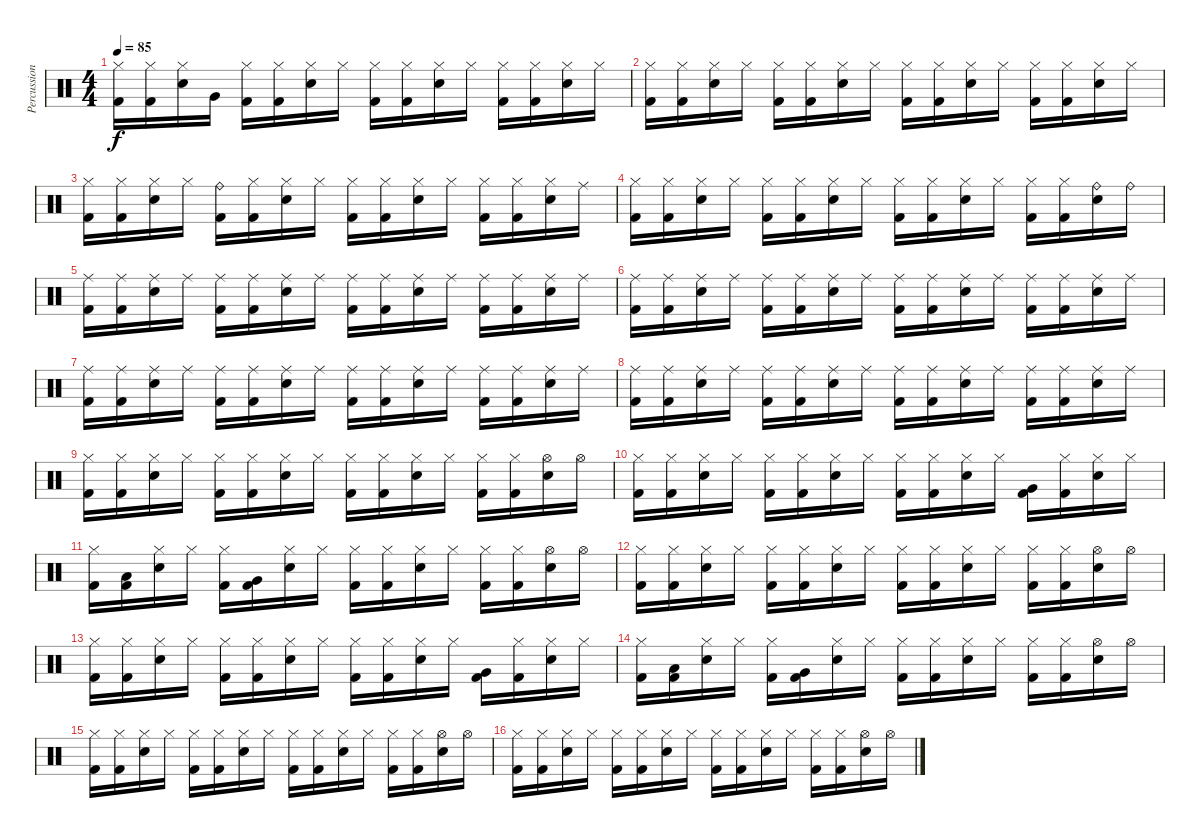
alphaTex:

\track ("Percussion" "Percussion") {instrument percussion}
\staff {score}
\articulation defaults
\ts (4 4)
\tempo 85
\clef neutral
\ks c
("Hi-Hat (closed)" "Kick (hit) 2").16{dy f} ("Hi-Hat (closed)" "Kick (hit) 2").16 ("Hi-Hat (closed)" "Snare (hit) 2").16 "Very Low Tom (hit)".16 ("Hi-Hat (closed)" "Kick (hit) 2").16 ("Hi-Hat (closed)" "Kick (hit) 2").16 ("Hi-Hat (closed)" "Snare (hit) 2").16 "Hi-Hat (closed)".16 ("Hi-Hat (closed)" "Kick (hit) 2").16 ("Hi-Hat (closed)" "Kick (hit) 2").16 ("Hi-Hat (closed)" "Snare (hit) 2").16 "Hi-Hat (closed)".16 ("Hi-Hat (closed)" "Kick (hit) 2").16 ("Hi-Hat (closed)" "Kick (hit) 2").16 ("Hi-Hat (closed)" "Snare (hit) 2").16 "Hi-Hat (closed)".16 |
("Hi-Hat (closed)" "Kick (hit) 2").16 ("Hi-Hat (closed)" "Kick (hit) 2").16 ("Hi-Hat (closed)" "Snare (hit) 2").16 "Hi-Hat (closed)".16 ("Hi-Hat (closed)" "Kick (hit) 2").16 ("Hi-Hat (closed)" "Kick (hit) 2").16 ("Hi-Hat (closed)" "Snare (hit) 2").16 "Hi-Hat (closed)".16 ("Hi-Hat (closed)" "Kick (hit) 2").16 ("Hi-Hat (closed)" "Kick (hit) 2").16 ("Hi-Hat (closed)" "Snare (hit) 2").16 "Hi-Hat (closed)".16 ("Hi-Hat (closed)" "Kick (hit) 2").16 ("Hi-Hat (closed)" "Kick (hit) 2").16 ("Hi-Hat (closed)" "Snare (hit) 2").16 "Hi-Hat (closed)".16 |
("Hi-Hat (closed)" "Kick (hit) 2").16 ("Hi-Hat (closed)" "Kick (hit) 2").16 ("Hi-Hat (closed)" "Snare (hit) 2").16 "Hi-Hat (closed)".16 ("Ride (bell)" "Kick (hit) 2").16 ("Hi-Hat (closed)" "Kick (hit) 2").16 ("Hi-Hat (closed)" "Snare (hit) 2").16 "Hi-Hat (closed)".16 ("Hi-Hat (closed)" "Kick (hit) 2").16 ("Hi-Hat (closed)" "Kick (hit) 2").16 ("Hi-Hat (closed)" "Snare (hit) 2").16 "Hi-Hat (closed)".16 ("Hi-Hat (closed)" "Kick (hit) 2").16 ("Hi-Hat (closed)" "Kick (hit) 2").16 ("Hi-Hat (closed)" "Snare (hit) 2").16 "Ride (middle)".16 |
("Hi-Hat (closed)" "Kick (hit) 2").16 ("Hi-Hat (closed)" "Kick (hit) 2").16 ("Hi-Hat (closed)" "Snare (hit) 2").16 "Hi-Hat (closed)".16 ("Hi-Hat (closed)" "Kick (hit) 2").16 ("Hi-Hat (closed)" "Kick (hit) 2").16 ("Hi-Hat (closed)" "Snare (hit) 2").16 "Hi-Hat (closed)".16 ("Hi-Hat (closed)" "Kick (hit) 2").16 ("Hi-Hat (closed)" "Kick (hit) 2").16 ("Hi-Hat (closed)" "Snare (hit) 2").16 "Hi-Hat (closed)".16 ("Hi-Hat (closed)" "Kick (hit) 2").16 ("Hi-Hat (closed)" "Kick (hit) 2").16 ("Ride (bell)" "Snare (hit) 2").16 "Ride (bell)".16 |
("Ride (middle)" "Kick (hit) 2").16 ("Ride (middle)" "Kick (hit) 2").16 ("Ride (middle)" "Snare (hit) 2").16 "Ride (middle)".16 ("Ride (middle)" "Kick (hit) 2").16 ("Ride (middle)" "Kick (hit) 2").16 ("Ride (middle)" "Snare (hit) 2").16 "Ride (middle)".16 ("Ride (middle)" "Kick (hit) 2").16 ("Ride (middle)" "Kick (hit) 2").16 ("Ride (middle)" "Snare (hit) 2").16 "Ride (middle)".16 ("Ride (middle)" "Kick (hit) 2").16 ("Ride (middle)" "Kick (hit) 2").16 ("Ride (middle)" "Snare (hit) 2").16 "Ride (middle)".16 |
("Ride (middle)" "Kick (hit) 2").16 ("Ride (middle)" "Kick (hit) 2").16 ("Ride (middle)" "Snare (hit) 2").16 "Ride (middle)".16 ("Ride (middle)" "Kick (hit) 2").16 ("Ride (middle)" "Kick (hit) 2").16 ("Ride (middle)" "Snare (hit) 2").16 "Ride (middle)".16 ("Ride (middle)" "Kick (hit) 2").16 ("Ride (middle)" "Kick (hit) 2").16 ("Ride (middle)" "Snare (hit) 2").16 "Ride (middle)".16 ("Ride (middle)" "Kick (hit) 2").16 ("Ride (middle)" "Kick (hit) 2").16 ("Ride (middle)" "Snare (hit) 2").16 "Ride (middle)".16 |
("Ride (middle)" "Kick (hit) 2").16 ("Ride (middle)" "Kick (hit) 2").16 ("Ride (middle)" "Snare (hit) 2").16 "Ride (middle)".16 ("Ride (middle)" "Kick (hit) 2").16 ("Ride (middle)" "Kick (hit) 2").16 ("Ride (middle)" "Snare (hit) 2").16 "Ride (middle)".16 ("Ride (middle)" "Kick (hit) 2").16 ("Ride (middle)" "Kick (hit) 2").16 ("Ride (middle)" "Snare (hit) 2").16 "Ride (middle)".16 ("Ride (middle)" "Kick (hit) 2").16 ("Ride (middle)" "Kick (hit) 2").16 ("Ride (middle)" "Snare (hit) 2").16 "Ride (middle)".16 |
("Ride (middle)" "Kick (hit) 2").16 ("Ride (middle)" "Kick (hit) 2").16 ("Ride (middle)" "Snare (hit) 2").16 "Ride (middle)".16 ("Ride (middle)" "Kick (hit) 2").16 ("Ride (middle)" "Kick (hit) 2").16 ("Ride (middle)" "Snare (hit) 2").16 "Ride (middle)".16 ("Ride (middle)" "Kick (hit) 2").16 ("Ride (middle)" "Kick (hit) 2").16 ("Ride (middle)" "Snare (hit) 2").16 "Ride (middle)".16 ("Ride (middle)" "Kick (hit) 2").16 ("Ride (middle)" "Kick (hit) 2").16 ("Ride (middle)" "Snare (hit) 2").16 "Ride (middle)".16 |
("Hi-Hat (closed)" "Kick (hit) 2").16 ("Hi-Hat (closed)" "Kick (hit) 2").16 ("Hi-Hat (closed)" "Snare (hit) 2").16 "Hi-Hat (closed)".16 ("Hi-Hat (closed)" "Kick (hit) 2").16 ("Hi-Hat (closed)" "Kick (hit) 2").16 ("Hi-Hat (closed)" "Snare (hit) 2").16 "Hi-Hat (closed)".16 ("Hi-Hat (closed)" "Kick (hit) 2").16 ("Hi-Hat (closed)" "Kick (hit) 2").16 ("Hi-Hat (closed)" "Snare (hit) 2").16 "Hi-Hat (closed)".16 ("Hi-Hat (closed)" "Kick (hit) 2").16 ("Hi-Hat (closed)" "Kick (hit) 2").16 ("Hi-Hat (open)" "Snare (hit) 2").16 "Hi-Hat (open)".16 |
("Hi-Hat (closed)" "Kick (hit) 2").16 ("Hi-Hat (closed)" "Kick (hit) 2").16 ("Hi-Hat (closed)" "Snare (hit) 2").16 "Hi-Hat (closed)".16 ("Hi-Hat (closed)" "Kick (hit) 2").16 ("Hi-Hat (closed)" "Kick (hit) 2").16 ("Hi-Hat (closed)" "Snare (hit) 2").16 "Hi-Hat (closed)".16 ("Hi-Hat (closed)" "Kick (hit) 2").16 ("Hi-Hat (closed)" "Kick (hit) 2").16 ("Hi-Hat (closed)" "Snare (hit) 2").16 "Hi-Hat (closed)".16 ("Very Low Tom (hit)" "Kick (hit) 2").16 ("Hi-Hat (closed)" "Kick (hit) 2").16 ("Hi-Hat (closed)" "Snare (hit) 2").16 "Hi-Hat (closed)".16 |
("Hi-Hat (closed)" "Kick (hit) 2").16 ("Low Tom (hit)" "Kick (hit) 2").16 ("Hi-Hat (closed)" "Snare (hit) 2").16 "Hi-Hat (closed)".16 ("Hi-Hat (closed)" "Kick (hit) 2").16 ("Very Low Tom (hit)" "Kick (hit) 2").16 ("Hi-Hat (closed)" "Snare (hit) 2").16 "Hi-Hat (closed)".16 ("Hi-Hat (closed)" "Kick (hit) 2").16 ("Hi-Hat (closed)" "Kick (hit) 2").16 ("Hi-Hat (closed)" "Snare (hit) 2").16 "Hi-Hat (closed)".16 ("Hi-Hat (closed)" "Kick (hit) 2").16 ("Hi-Hat (closed)" "Kick (hit) 2").16 ("Hi-Hat (open)" "Snare (hit) 2").16 "Hi-Hat (open)".16 |
("Hi-Hat (closed)" "Kick (hit) 2").16 ("Hi-Hat (closed)" "Kick (hit) 2").16 ("Hi-Hat (closed)" "Snare (hit) 2").16 "Hi-Hat (closed)".16 ("Hi-Hat (closed)" "Kick (hit) 2").16 ("Hi-Hat (closed)" "Kick (hit) 2").16 ("Hi-Hat (closed)" "Snare (hit) 2").16 "Hi-Hat (closed)".16 ("Hi-Hat (closed)" "Kick (hit) 2").16 ("Hi-Hat (closed)" "Kick (hit) 2").16 ("Hi-Hat (closed)" "Snare (hit) 2").16 "Hi-Hat (closed)".16 ("Hi-Hat (closed)" "Kick (hit) 2").16 ("Hi-Hat (closed)" "Kick (hit) 2").16 ("Hi-Hat (open)" "Snare (hit) 2").16 "Hi-Hat (open)".16 |
("Hi-Hat (closed)" "Kick (hit) 2").16 ("Hi-Hat (closed)" "Kick (hit) 2").16 ("Hi-Hat (closed)" "Snare (hit) 2").16 "Hi-Hat (closed)".16 ("Hi-Hat (closed)" "Kick (hit) 2").16 ("Hi-Hat (closed)" "Kick (hit) 2").16 ("Hi-Hat (closed)" "Snare (hit) 2").16 "Hi-Hat (closed)".16 ("Hi-Hat (closed)" "Kick (hit) 2").16 ("Hi-Hat (closed)" "Kick (hit) 2").16 ("Hi-Hat (closed)" "Snare (hit) 2").16 "Hi-Hat (closed)".16 ("Very Low Tom (hit)" "Kick (hit) 2").16 ("Hi-Hat (closed)" "Kick (hit) 2").16 ("Hi-Hat (closed)" "Snare (hit) 2").16 "Hi-Hat (closed)".16 |
("Hi-Hat (closed)" "Kick (hit) 2").16 ("Low Tom (hit)" "Kick (hit) 2").16 ("Hi-Hat (closed)" "Snare (hit) 2").16 "Hi-Hat (closed)".16 ("Hi-Hat (closed)" "Kick (hit) 2").16 ("Very Low Tom (hit)" "Kick (hit) 2").16 ("Hi-Hat (closed)" "Snare (hit) 2").16 "Hi-Hat (closed)".16 ("Hi-Hat (closed)" "Kick (hit) 2").16 ("Hi-Hat (closed)" "Kick (hit) 2").16 ("Hi-Hat (closed)" "Snare (hit) 2").16 "Hi-Hat (closed)".16 ("Hi-Hat (closed)" "Kick (hit) 2").16 ("Hi-Hat (closed)" "Kick (hit) 2").16 ("Hi-Hat (open)" "Snare (hit) 2").16 "Hi-Hat (open)".16 |
("Hi-Hat (closed)" "Kick (hit) 2").16 ("Hi-Hat (closed)" "Kick (hit) 2").16 ("Hi-Hat (closed)" "Snare (hit) 2").16 "Hi-Hat (closed)".16 ("Hi-Hat (closed)" "Kick (hit) 2").16 ("Hi-Hat (closed)" "Kick (hit) 2").16 ("Hi-Hat (closed)" "Snare (hit) 2").16 "Hi-Hat (closed)".16 ("Hi-Hat (closed)" "Kick (hit) 2").16 ("Hi-Hat (closed)" "Kick (hit) 2").16 ("Hi-Hat (closed)" "Snare (hit) 2").16 "Hi-Hat (closed)".16 ("Hi-Hat (closed)" "Kick (hit) 2").16 ("Hi-Hat (closed)" "Kick (hit) 2").16 ("Hi-Hat (open)" "Snare (hit) 2").16 "Hi-Hat (open)".16 |
("Hi-Hat (closed)" "Kick (hit) 2").16 ("Hi-Hat (closed)" "Kick (hit) 2").16 ("Hi-Hat (closed)" "Snare (hit) 2").16 "Hi-Hat (closed)".16 ("Hi-Hat (closed)" "Kick (hit) 2").16 ("Hi-Hat (closed)" "Kick (hit) 2").16 ("Hi-Hat (closed)" "Snare (hit) 2").16 "Hi-Hat (closed)".16 ("Hi-Hat (closed)" "Kick (hit) 2").16 ("Hi-Hat (closed)" "Kick (hit) 2").16 ("Hi-Hat (closed)" "Snare (hit) 2").16 "Hi-Hat (closed)".16 ("Hi-Hat (closed)" "Kick (hit) 2").16 ("Hi-Hat (closed)" "Kick (hit) 2").16 ("Hi-Hat (open)" "Snare (hit) 2").16 "Hi-Hat (open)".16
